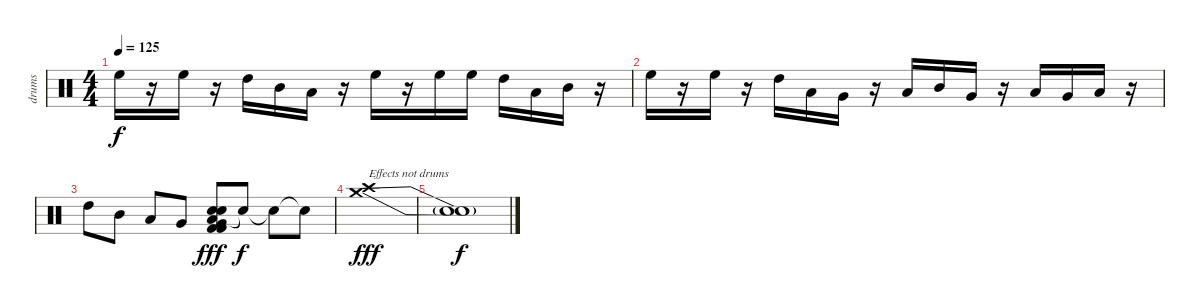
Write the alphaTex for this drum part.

\track ("drums" "drums") {instrument percussion}
\staff {score}
\articulation defaults
\ts (4 4)
\tempo 125
\clef neutral
\ks c "High Floor Tom (hit)".16{dy f}
r.16 "High Floor Tom (hit)".16 r.16 "High Tom (hit)".16 "Mid Tom (hit)".16 "Low Tom (hit)".16 r.16 "High Floor Tom (hit)".16 r.16 "High Floor Tom (hit)".16 "High Floor Tom (hit)".16 "High Tom (hit)".16 "Low Tom (hit)".16 "Mid Tom (hit)".16 r.16 |
"High Floor Tom (hit)".16 r.16 "High Floor Tom (hit)".16 r.16 "High Tom (hit)".16 "Low Tom (hit)".16 "Very Low Tom (hit)".16 r.16 "Low Tom (hit)".16 "Mid Tom (hit)".16 "Very Low Tom (hit)".16 r.16 "Low Floor Tom (hit)".16 "Very Low Tom (hit)".16 "Low Floor Tom (hit)".16 r.16 |
"High Tom (hit)".8 "Mid Tom (hit)".8 "Low Tom (hit)".8 "Very Low Tom (hit)".8 ("Low Floor Tom (hit)" "Electric Snare (hit)" "Electric Snare (hit)" "Kick (hit) 2" "Kick (hit) 2" "Very Low Tom (hit)").8{dy fff} "Snare (hit)"{t}.8{dy f} "Snare (hit)"{t}.8 "Snare (hit)"{t}.8 |
("Crash medium (hit)"{be (custom 0 12 20 12 40 0 60 0)} "Crash high (hit)"{be (bend 0 0 60 12)}).1{txt "Effects not drums" dy fff} |
("Snare (hit)"{t} "Snare (hit)"{t}).1{dy f}
